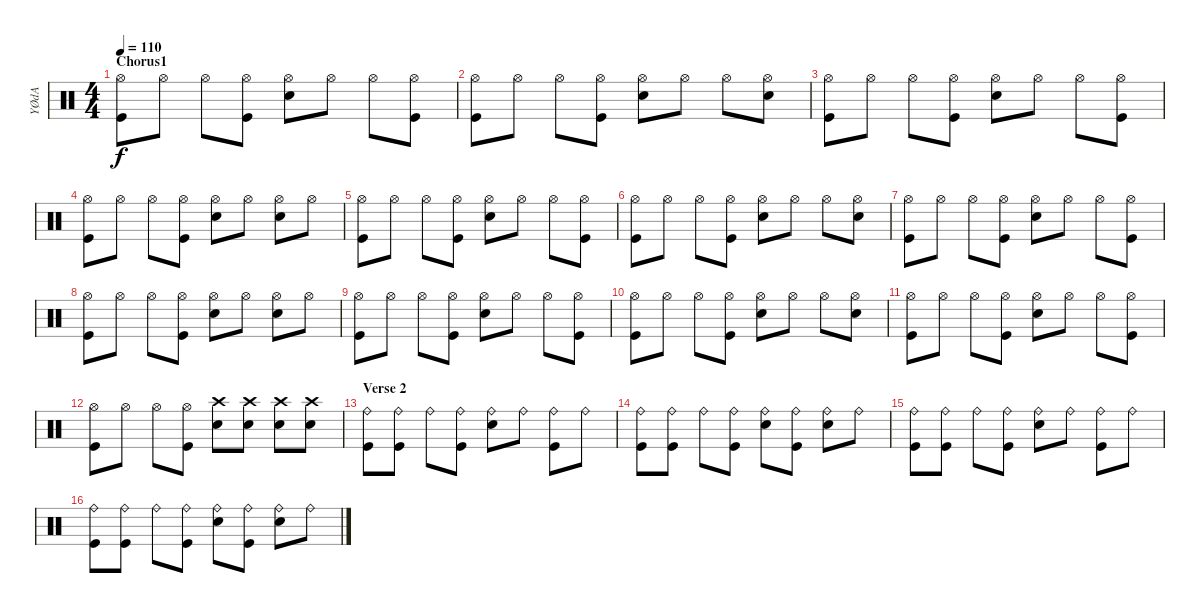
\track ("YØdA" "YØdA") {instrument percussion}
\staff {score}
\articulation defaults
\ts (4 4)
\section ("" "Chorus1")
\tempo 110
\clef neutral
\ks c
("Hi-Hat (open)" "Kick (hit)").8{dy f} "Hi-Hat (open)".8 "Hi-Hat (open)".8 ("Hi-Hat (open)" "Kick (hit)").8 ("Hi-Hat (open)" "Electric Snare (hit)").8 "Hi-Hat (open)".8 "Hi-Hat (open)".8 ("Hi-Hat (open)" "Kick (hit)").8 |
("Hi-Hat (open)" "Kick (hit)").8 "Hi-Hat (open)".8 "Hi-Hat (open)".8 ("Hi-Hat (open)" "Kick (hit)").8 ("Hi-Hat (open)" "Electric Snare (hit)").8 "Hi-Hat (open)".8 "Hi-Hat (open)".8 ("Hi-Hat (open)" "Electric Snare (hit)").8 |
("Hi-Hat (open)" "Kick (hit)").8 "Hi-Hat (open)".8 "Hi-Hat (open)".8 ("Hi-Hat (open)" "Kick (hit)").8 ("Hi-Hat (open)" "Electric Snare (hit)").8 "Hi-Hat (open)".8 "Hi-Hat (open)".8 ("Hi-Hat (open)" "Kick (hit)").8 |
("Hi-Hat (open)" "Kick (hit)").8 "Hi-Hat (open)".8 "Hi-Hat (open)".8 ("Hi-Hat (open)" "Kick (hit)").8 ("Hi-Hat (open)" "Electric Snare (hit)").8 "Hi-Hat (open)".8 ("Hi-Hat (open)" "Electric Snare (hit)").8 "Hi-Hat (open)".8 |
("Hi-Hat (open)" "Kick (hit)").8 "Hi-Hat (open)".8 "Hi-Hat (open)".8 ("Hi-Hat (open)" "Kick (hit)").8 ("Hi-Hat (open)" "Electric Snare (hit)").8 "Hi-Hat (open)".8 "Hi-Hat (open)".8 ("Hi-Hat (open)" "Kick (hit)").8 |
("Hi-Hat (open)" "Kick (hit)").8 "Hi-Hat (open)".8 "Hi-Hat (open)".8 ("Hi-Hat (open)" "Kick (hit)").8 ("Hi-Hat (open)" "Electric Snare (hit)").8 "Hi-Hat (open)".8 "Hi-Hat (open)".8 ("Hi-Hat (open)" "Electric Snare (hit)").8 |
("Hi-Hat (open)" "Kick (hit)").8 "Hi-Hat (open)".8 "Hi-Hat (open)".8 ("Hi-Hat (open)" "Kick (hit)").8 ("Hi-Hat (open)" "Electric Snare (hit)").8 "Hi-Hat (open)".8 "Hi-Hat (open)".8 ("Hi-Hat (open)" "Kick (hit)").8 |
("Hi-Hat (open)" "Kick (hit)").8 "Hi-Hat (open)".8 "Hi-Hat (open)".8 ("Hi-Hat (open)" "Kick (hit)").8 ("Hi-Hat (open)" "Electric Snare (hit)").8 "Hi-Hat (open)".8 ("Hi-Hat (open)" "Electric Snare (hit)").8 "Hi-Hat (open)".8 |
("Hi-Hat (open)" "Kick (hit)").8 "Hi-Hat (open)".8 "Hi-Hat (open)".8 ("Hi-Hat (open)" "Kick (hit)").8 ("Hi-Hat (open)" "Electric Snare (hit)").8 "Hi-Hat (open)".8 "Hi-Hat (open)".8 ("Hi-Hat (open)" "Kick (hit)").8 |
("Hi-Hat (open)" "Kick (hit)").8 "Hi-Hat (open)".8 "Hi-Hat (open)".8 ("Hi-Hat (open)" "Kick (hit)").8 ("Hi-Hat (open)" "Electric Snare (hit)").8 "Hi-Hat (open)".8 "Hi-Hat (open)".8 ("Hi-Hat (open)" "Electric Snare (hit)").8 |
("Hi-Hat (open)" "Kick (hit)").8 "Hi-Hat (open)".8 "Hi-Hat (open)".8 ("Hi-Hat (open)" "Kick (hit)").8 ("Hi-Hat (open)" "Electric Snare (hit)").8 "Hi-Hat (open)".8 "Hi-Hat (open)".8 ("Hi-Hat (open)" "Kick (hit)").8 |
("Hi-Hat (open)" "Kick (hit)").8 "Hi-Hat (open)".8 "Hi-Hat (open)".8 ("Hi-Hat (open)" "Kick (hit)").8 ("Crash high (hit)" "Electric Snare (hit)").8 ("Crash high (hit)" "Electric Snare (hit)").8 ("Crash high (hit)" "Electric Snare (hit)").8 ("Crash high (hit)" "Electric Snare (hit)").8 |
\section ("" "Verse 2")
("Ride (bell)" "Kick (hit)").8 ("Ride (bell)" "Kick (hit)").8 "Ride (bell)".8 ("Ride (bell)" "Kick (hit)").8 ("Ride (bell)" "Electric Snare (hit)").8 "Ride (bell)".8 ("Ride (bell)" "Kick (hit)").8 "Ride (bell)".8 |
("Ride (bell)" "Kick (hit)").8 ("Ride (bell)" "Kick (hit)").8 "Ride (bell)".8 ("Ride (bell)" "Kick (hit)").8 ("Ride (bell)" "Electric Snare (hit)").8 ("Ride (bell)" "Kick (hit)").8 ("Ride (bell)" "Electric Snare (hit)").8 "Ride (bell)".8 |
("Ride (bell)" "Kick (hit)").8 ("Ride (bell)" "Kick (hit)").8 "Ride (bell)".8 ("Ride (bell)" "Kick (hit)").8 ("Ride (bell)" "Electric Snare (hit)").8 "Ride (bell)".8 ("Ride (bell)" "Kick (hit)").8 "Ride (bell)".8 |
("Ride (bell)" "Kick (hit)").8 ("Ride (bell)" "Kick (hit)").8 "Ride (bell)".8 ("Ride (bell)" "Kick (hit)").8 ("Ride (bell)" "Electric Snare (hit)").8 ("Ride (bell)" "Kick (hit)").8 ("Ride (bell)" "Electric Snare (hit)").8 "Ride (bell)".8
